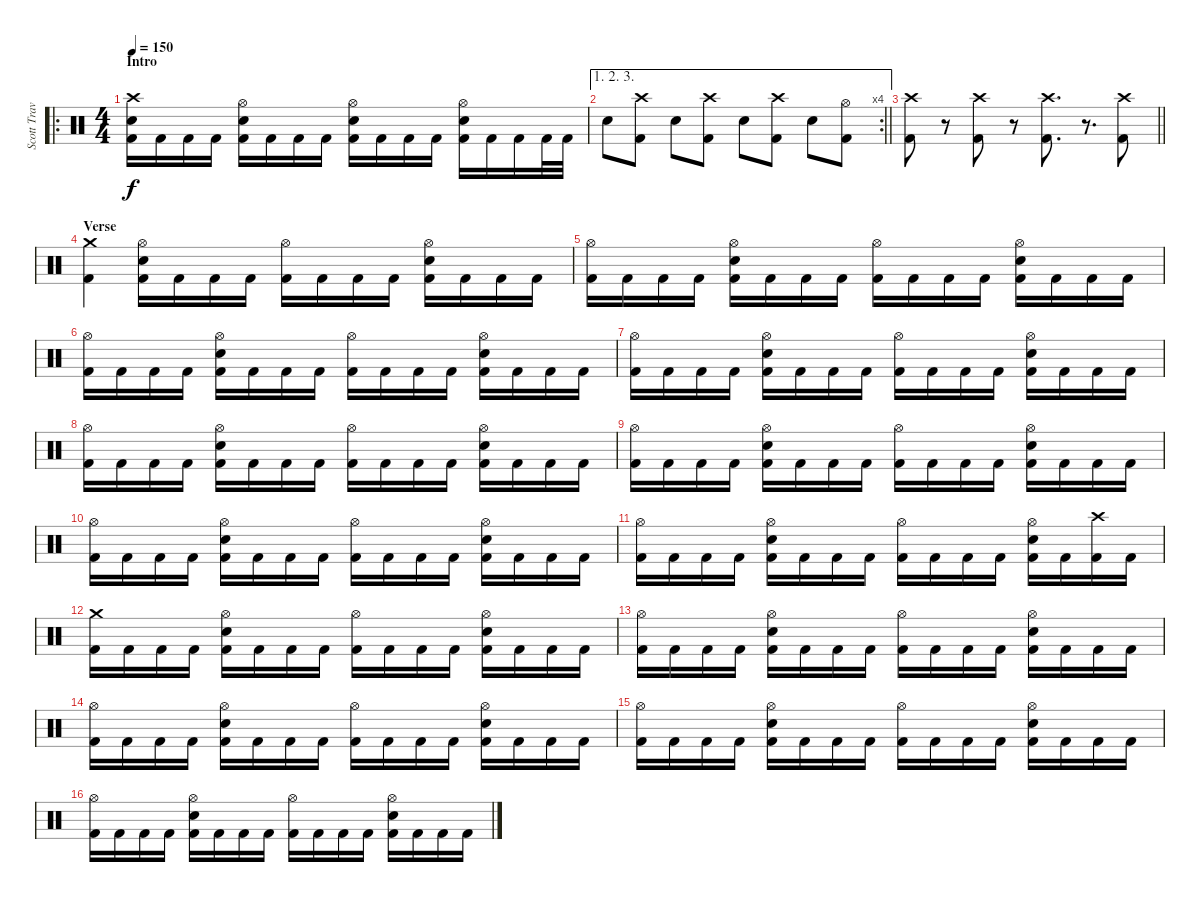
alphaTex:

\track ("Scott Travis" "Scott Trav") {instrument percussion}
\staff {score}
\articulation defaults
\ro
\ts (4 4)
\section ("" "Intro")
\tempo 150
\clef neutral
\ks c
("Crash high (hit)" "Snare (hit) 2" "Kick (hit) 2").16{dy f} "Kick (hit) 2".16 "Kick (hit) 2".16 "Kick (hit) 2".16 ("Hi-Hat (open)" "Snare (hit) 2" "Kick (hit) 2").16 "Kick (hit) 2".16 "Kick (hit) 2".16 "Kick (hit) 2".16 ("Hi-Hat (open)" "Snare (hit) 2" "Kick (hit) 2").16 "Kick (hit) 2".16 "Kick (hit) 2".16 "Kick (hit) 2".16 ("Hi-Hat (open)" "Snare (hit) 2" "Kick (hit) 2").16 "Kick (hit) 2".16 "Kick (hit) 2".16 "Kick (hit) 2".32 "Kick (hit) 2".32 |
\ae (1 2 3)
\rc 4
\barLineRight lightlight "Snare (hit) 2".8
("Crash high (hit)" "Kick (hit) 2").8 "Snare (hit) 2".8 ("Crash high (hit)" "Kick (hit) 2").8 "Snare (hit) 2".8 ("Crash high (hit)" "Kick (hit) 2").8 "Snare (hit) 2".8 ("Hi-Hat (open)" "Kick (hit) 2").8 |
\barLineRight lightlight
("Crash high (hit)" "Kick (hit) 2").8 r.8{volume 0} ("Crash high (hit)" "Kick (hit) 2").8{volume 16} r.8{volume 0} ("Crash high (hit)" "Kick (hit) 2").8{d volume 16} r.8{d} ("Crash high (hit)" "Kick (hit) 2").8 |
\section ("" "Verse")
("Crash medium (hit)" "Kick (hit) 2").4 ("Hi-Hat (open)" "Snare (hit) 2" "Kick (hit) 2").16 "Kick (hit) 2".16 "Kick (hit) 2".16 "Kick (hit) 2".16 ("Hi-Hat (open)" "Kick (hit) 2").16 "Kick (hit) 2".16 "Kick (hit) 2".16 "Kick (hit) 2".16 ("Hi-Hat (open)" "Snare (hit) 2" "Kick (hit) 2").16 "Kick (hit) 2".16 "Kick (hit) 2".16 "Kick (hit) 2".16 |
("Hi-Hat (open)" "Kick (hit) 2").16 "Kick (hit) 2".16 "Kick (hit) 2".16 "Kick (hit) 2".16 ("Hi-Hat (open)" "Snare (hit) 2" "Kick (hit) 2").16 "Kick (hit) 2".16 "Kick (hit) 2".16 "Kick (hit) 2".16 ("Hi-Hat (open)" "Kick (hit) 2").16 "Kick (hit) 2".16 "Kick (hit) 2".16 "Kick (hit) 2".16 ("Hi-Hat (open)" "Snare (hit) 2" "Kick (hit) 2").16 "Kick (hit) 2".16 "Kick (hit) 2".16 "Kick (hit) 2".16 |
("Hi-Hat (open)" "Kick (hit) 2").16 "Kick (hit) 2".16 "Kick (hit) 2".16 "Kick (hit) 2".16 ("Hi-Hat (open)" "Snare (hit) 2" "Kick (hit) 2").16 "Kick (hit) 2".16 "Kick (hit) 2".16 "Kick (hit) 2".16 ("Hi-Hat (open)" "Kick (hit) 2").16 "Kick (hit) 2".16 "Kick (hit) 2".16 "Kick (hit) 2".16 ("Hi-Hat (open)" "Snare (hit) 2" "Kick (hit) 2").16 "Kick (hit) 2".16 "Kick (hit) 2".16 "Kick (hit) 2".16 |
("Hi-Hat (open)" "Kick (hit) 2").16 "Kick (hit) 2".16 "Kick (hit) 2".16 "Kick (hit) 2".16 ("Hi-Hat (open)" "Snare (hit) 2" "Kick (hit) 2").16 "Kick (hit) 2".16 "Kick (hit) 2".16 "Kick (hit) 2".16 ("Hi-Hat (open)" "Kick (hit) 2").16 "Kick (hit) 2".16 "Kick (hit) 2".16 "Kick (hit) 2".16 ("Hi-Hat (open)" "Snare (hit) 2" "Kick (hit) 2").16 "Kick (hit) 2".16 "Kick (hit) 2".16 "Kick (hit) 2".16 |
("Hi-Hat (open)" "Kick (hit) 2").16 "Kick (hit) 2".16 "Kick (hit) 2".16 "Kick (hit) 2".16 ("Hi-Hat (open)" "Snare (hit) 2" "Kick (hit) 2").16 "Kick (hit) 2".16 "Kick (hit) 2".16 "Kick (hit) 2".16 ("Hi-Hat (open)" "Kick (hit) 2").16 "Kick (hit) 2".16 "Kick (hit) 2".16 "Kick (hit) 2".16 ("Hi-Hat (open)" "Snare (hit) 2" "Kick (hit) 2").16 "Kick (hit) 2".16 "Kick (hit) 2".16 "Kick (hit) 2".16 |
("Hi-Hat (open)" "Kick (hit) 2").16 "Kick (hit) 2".16 "Kick (hit) 2".16 "Kick (hit) 2".16 ("Hi-Hat (open)" "Snare (hit) 2" "Kick (hit) 2").16 "Kick (hit) 2".16 "Kick (hit) 2".16 "Kick (hit) 2".16 ("Hi-Hat (open)" "Kick (hit) 2").16 "Kick (hit) 2".16 "Kick (hit) 2".16 "Kick (hit) 2".16 ("Hi-Hat (open)" "Snare (hit) 2" "Kick (hit) 2").16 "Kick (hit) 2".16 "Kick (hit) 2".16 "Kick (hit) 2".16 |
("Hi-Hat (open)" "Kick (hit) 2").16 "Kick (hit) 2".16 "Kick (hit) 2".16 "Kick (hit) 2".16 ("Hi-Hat (open)" "Snare (hit) 2" "Kick (hit) 2").16 "Kick (hit) 2".16 "Kick (hit) 2".16 "Kick (hit) 2".16 ("Hi-Hat (open)" "Kick (hit) 2").16 "Kick (hit) 2".16 "Kick (hit) 2".16 "Kick (hit) 2".16 ("Hi-Hat (open)" "Snare (hit) 2" "Kick (hit) 2").16 "Kick (hit) 2".16 "Kick (hit) 2".16 "Kick (hit) 2".16 |
("Hi-Hat (open)" "Kick (hit) 2").16 "Kick (hit) 2".16 "Kick (hit) 2".16 "Kick (hit) 2".16 ("Hi-Hat (open)" "Snare (hit) 2" "Kick (hit) 2").16 "Kick (hit) 2".16 "Kick (hit) 2".16 "Kick (hit) 2".16 ("Hi-Hat (open)" "Kick (hit) 2").16 "Kick (hit) 2".16 "Kick (hit) 2".16 "Kick (hit) 2".16 ("Hi-Hat (open)" "Snare (hit) 2" "Kick (hit) 2").16 "Kick (hit) 2".16 ("Crash high (hit)" "Kick (hit) 2").16 "Kick (hit) 2".16 |
("Crash medium (hit)" "Kick (hit) 2").16 "Kick (hit) 2".16 "Kick (hit) 2".16 "Kick (hit) 2".16 ("Hi-Hat (open)" "Snare (hit) 2" "Kick (hit) 2").16 "Kick (hit) 2".16 "Kick (hit) 2".16 "Kick (hit) 2".16 ("Hi-Hat (open)" "Kick (hit) 2").16 "Kick (hit) 2".16 "Kick (hit) 2".16 "Kick (hit) 2".16 ("Hi-Hat (open)" "Snare (hit) 2" "Kick (hit) 2").16 "Kick (hit) 2".16 "Kick (hit) 2".16 "Kick (hit) 2".16 |
("Hi-Hat (open)" "Kick (hit) 2").16 "Kick (hit) 2".16 "Kick (hit) 2".16 "Kick (hit) 2".16 ("Hi-Hat (open)" "Snare (hit) 2" "Kick (hit) 2").16 "Kick (hit) 2".16 "Kick (hit) 2".16 "Kick (hit) 2".16 ("Hi-Hat (open)" "Kick (hit) 2").16 "Kick (hit) 2".16 "Kick (hit) 2".16 "Kick (hit) 2".16 ("Hi-Hat (open)" "Snare (hit) 2" "Kick (hit) 2").16 "Kick (hit) 2".16 "Kick (hit) 2".16 "Kick (hit) 2".16 |
("Hi-Hat (open)" "Kick (hit) 2").16 "Kick (hit) 2".16 "Kick (hit) 2".16 "Kick (hit) 2".16 ("Hi-Hat (open)" "Snare (hit) 2" "Kick (hit) 2").16 "Kick (hit) 2".16 "Kick (hit) 2".16 "Kick (hit) 2".16 ("Hi-Hat (open)" "Kick (hit) 2").16 "Kick (hit) 2".16 "Kick (hit) 2".16 "Kick (hit) 2".16 ("Hi-Hat (open)" "Snare (hit) 2" "Kick (hit) 2").16 "Kick (hit) 2".16 "Kick (hit) 2".16 "Kick (hit) 2".16 |
("Hi-Hat (open)" "Kick (hit) 2").16 "Kick (hit) 2".16 "Kick (hit) 2".16 "Kick (hit) 2".16 ("Hi-Hat (open)" "Snare (hit) 2" "Kick (hit) 2").16 "Kick (hit) 2".16 "Kick (hit) 2".16 "Kick (hit) 2".16 ("Hi-Hat (open)" "Kick (hit) 2").16 "Kick (hit) 2".16 "Kick (hit) 2".16 "Kick (hit) 2".16 ("Hi-Hat (open)" "Snare (hit) 2" "Kick (hit) 2").16 "Kick (hit) 2".16 "Kick (hit) 2".16 "Kick (hit) 2".16 |
("Hi-Hat (open)" "Kick (hit) 2").16 "Kick (hit) 2".16 "Kick (hit) 2".16 "Kick (hit) 2".16 ("Hi-Hat (open)" "Snare (hit) 2" "Kick (hit) 2").16 "Kick (hit) 2".16 "Kick (hit) 2".16 "Kick (hit) 2".16 ("Hi-Hat (open)" "Kick (hit) 2").16 "Kick (hit) 2".16 "Kick (hit) 2".16 "Kick (hit) 2".16 ("Hi-Hat (open)" "Snare (hit) 2" "Kick (hit) 2").16 "Kick (hit) 2".16 "Kick (hit) 2".16 "Kick (hit) 2".16
